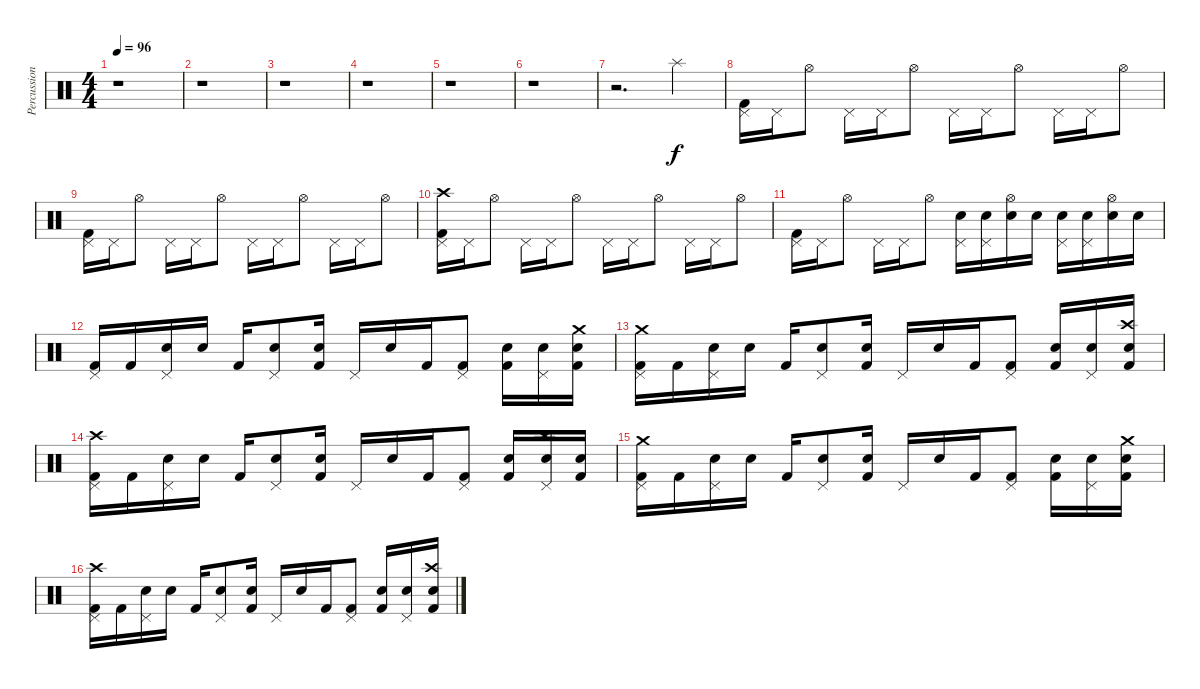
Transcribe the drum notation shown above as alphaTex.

\track ("Percussion" "Percussion") {instrument percussion}
\staff {score}
\articulation defaults
\ts (4 4)
\tempo 96
\clef neutral
\ks c
r.1{dy f} |
r.1 |
r.1 |
r.1 |
r.1 |
r.1 |
r.2{d} "Splash (hit)".4 |
("Pedal Hi-Hat (hit)" "Kick (hit) 2").16 "Pedal Hi-Hat (hit)".16 "Hi-Hat (open)".8 "Pedal Hi-Hat (hit)".16 "Pedal Hi-Hat (hit)".16 "Hi-Hat (open)".8 "Pedal Hi-Hat (hit)".16 "Pedal Hi-Hat (hit)".16 "Hi-Hat (open)".8 "Pedal Hi-Hat (hit)".16 "Pedal Hi-Hat (hit)".16 "Hi-Hat (open)".8 |
("Pedal Hi-Hat (hit)" "Kick (hit) 2").16 "Pedal Hi-Hat (hit)".16 "Hi-Hat (open)".8 "Pedal Hi-Hat (hit)".16 "Pedal Hi-Hat (hit)".16 "Hi-Hat (open)".8 "Pedal Hi-Hat (hit)".16 "Pedal Hi-Hat (hit)".16 "Hi-Hat (open)".8 "Pedal Hi-Hat (hit)".16 "Pedal Hi-Hat (hit)".16 "Hi-Hat (open)".8 |
("Crash high (hit)" "Pedal Hi-Hat (hit)" "Kick (hit) 2").16 "Pedal Hi-Hat (hit)".16 "Hi-Hat (open)".8 "Pedal Hi-Hat (hit)".16 "Pedal Hi-Hat (hit)".16 "Hi-Hat (open)".8 "Pedal Hi-Hat (hit)".16 "Pedal Hi-Hat (hit)".16 "Hi-Hat (open)".8 "Pedal Hi-Hat (hit)".16 "Pedal Hi-Hat (hit)".16 "Hi-Hat (open)".8 |
("Pedal Hi-Hat (hit)" "Kick (hit) 2").16 "Pedal Hi-Hat (hit)".16 "Hi-Hat (open)".8 "Pedal Hi-Hat (hit)".16 "Pedal Hi-Hat (hit)".16 "Hi-Hat (open)".8 ("Pedal Hi-Hat (hit)" "Electric Snare (hit)").16 ("Pedal Hi-Hat (hit)" "Electric Snare (hit)").16 ("Hi-Hat (open)" "Electric Snare (hit)").16 "Electric Snare (hit)".16 ("Pedal Hi-Hat (hit)" "Electric Snare (hit)").16 ("Pedal Hi-Hat (hit)" "Electric Snare (hit)").16 ("Hi-Hat (open)" "Electric Snare (hit)").16 "Electric Snare (hit)".16 |
("Pedal Hi-Hat (hit)" "Kick (hit) 2").16 "Kick (hit) 2".16 ("Pedal Hi-Hat (hit)" "Electric Snare (hit)").16 "Snare (hit)".16 "Kick (hit) 2".16 ("Pedal Hi-Hat (hit)" "Electric Snare (hit)").8 ("Electric Snare (hit)" "Kick (hit) 2").16 "Pedal Hi-Hat (hit)".16 "Electric Snare (hit)".16 "Kick (hit) 2".16 ("Pedal Hi-Hat (hit)" "Kick (hit) 2").8 ("Electric Snare (hit)" "Kick (hit) 2").16 ("Pedal Hi-Hat (hit)" "Electric Snare (hit)").16 ("Crash medium (hit)" "Electric Snare (hit)" "Kick (hit) 2").16 |
("Crash medium (hit)" "Pedal Hi-Hat (hit)" "Kick (hit) 2").16 "Kick (hit) 2".16 ("Pedal Hi-Hat (hit)" "Electric Snare (hit)").16 "Snare (hit)".16 "Kick (hit) 2".16 ("Pedal Hi-Hat (hit)" "Electric Snare (hit)").8 ("Electric Snare (hit)" "Kick (hit) 2").16 "Pedal Hi-Hat (hit)".16 "Electric Snare (hit)".16 "Kick (hit) 2".16 ("Pedal Hi-Hat (hit)" "Kick (hit) 2").8 ("Electric Snare (hit)" "Kick (hit) 2").16 ("Pedal Hi-Hat (hit)" "Electric Snare (hit)").16 ("Crash high (hit)" "Electric Snare (hit)" "Kick (hit) 2").16 |
("Crash high (hit)" "Pedal Hi-Hat (hit)" "Kick (hit) 2").16 "Kick (hit) 2".16 ("Pedal Hi-Hat (hit)" "Electric Snare (hit)").16 "Snare (hit)".16 "Kick (hit) 2".16 ("Pedal Hi-Hat (hit)" "Electric Snare (hit)").8 ("Electric Snare (hit)" "Kick (hit) 2").16 "Pedal Hi-Hat (hit)".16 "Electric Snare (hit)".16 "Kick (hit) 2".16 ("Pedal Hi-Hat (hit)" "Kick (hit) 2").8 ("Electric Snare (hit)" "Kick (hit) 2").16 ("Crash high (hit)" "Pedal Hi-Hat (hit)" "Electric Snare (hit)").16 ("Electric Snare (hit)" "Kick (hit) 2").16 |
("Crash medium (hit)" "Pedal Hi-Hat (hit)" "Kick (hit) 2").16 "Kick (hit) 2".16 ("Pedal Hi-Hat (hit)" "Electric Snare (hit)").16 "Snare (hit)".16 "Kick (hit) 2".16 ("Pedal Hi-Hat (hit)" "Electric Snare (hit)").8 ("Electric Snare (hit)" "Kick (hit) 2").16 "Pedal Hi-Hat (hit)".16 "Electric Snare (hit)".16 "Kick (hit) 2".16 ("Pedal Hi-Hat (hit)" "Kick (hit) 2").8 ("Electric Snare (hit)" "Kick (hit) 2").16 ("Pedal Hi-Hat (hit)" "Electric Snare (hit)").16 ("Crash medium (hit)" "Electric Snare (hit)" "Kick (hit) 2").16 |
("Crash high (hit)" "Pedal Hi-Hat (hit)" "Kick (hit) 2").16 "Kick (hit) 2".16 ("Pedal Hi-Hat (hit)" "Electric Snare (hit)").16 "Snare (hit)".16 "Kick (hit) 2".16 ("Pedal Hi-Hat (hit)" "Electric Snare (hit)").8 ("Electric Snare (hit)" "Kick (hit) 2").16 "Pedal Hi-Hat (hit)".16 "Electric Snare (hit)".16 "Kick (hit) 2".16 ("Pedal Hi-Hat (hit)" "Kick (hit) 2").8 ("Electric Snare (hit)" "Kick (hit) 2").16 ("Pedal Hi-Hat (hit)" "Electric Snare (hit)").16 ("Crash high (hit)" "Electric Snare (hit)" "Kick (hit) 2").16
